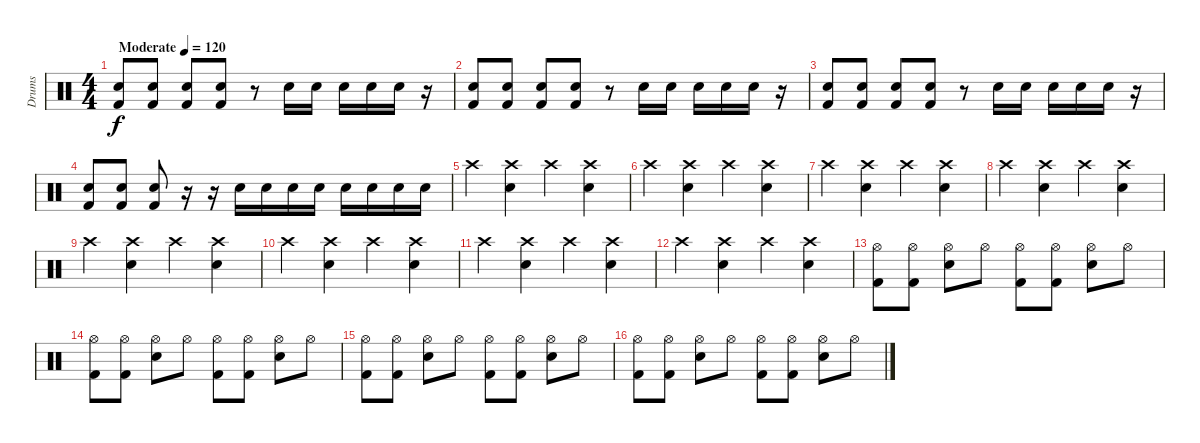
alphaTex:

\track ("Drums" "Drums") {instrument percussion}
\staff {score}
\articulation defaults
\ts (4 4)
\tempo (120 "Moderate")
\clef neutral
\ks c
("Kick (hit) 2" "Snare (hit) 2").8{dy f} ("Kick (hit) 2" "Snare (hit) 2").8 ("Kick (hit) 2" "Snare (hit) 2").8 ("Kick (hit) 2" "Snare (hit) 2").8 r.8 "Snare (hit) 2".16 "Snare (hit) 2".16 "Snare (hit) 2".16 "Snare (hit) 2".16 "Snare (hit) 2".16 r.16 |
("Kick (hit) 2" "Snare (hit) 2").8 ("Kick (hit) 2" "Snare (hit) 2").8 ("Kick (hit) 2" "Snare (hit) 2").8 ("Kick (hit) 2" "Snare (hit) 2").8 r.8 "Snare (hit) 2".16 "Snare (hit) 2".16 "Snare (hit) 2".16 "Snare (hit) 2".16 "Snare (hit) 2".16 r.16 |
("Kick (hit) 2" "Snare (hit) 2").8 ("Kick (hit) 2" "Snare (hit) 2").8 ("Kick (hit) 2" "Snare (hit) 2").8 ("Kick (hit) 2" "Snare (hit) 2").8 r.8 "Snare (hit) 2".16 "Snare (hit) 2".16 "Snare (hit) 2".16 "Snare (hit) 2".16 "Snare (hit) 2".16 r.16 |
("Kick (hit) 2" "Snare (hit) 2").8 ("Kick (hit) 2" "Snare (hit) 2").8 ("Kick (hit) 2" "Snare (hit) 2").8 r.16 r.16 "Snare (hit) 2".16 "Snare (hit) 2".16 "Snare (hit) 2".16 "Snare (hit) 2".16 "Snare (hit) 2".16 "Snare (hit) 2".16 "Snare (hit) 2".16 "Snare (hit) 2".16 |
"Crash high (hit)".4 ("Crash high (hit)" "Snare (hit) 2").4 "Crash high (hit)".4 ("Crash high (hit)" "Snare (hit) 2").4 |
"Crash high (hit)".4 ("Crash high (hit)" "Snare (hit) 2").4 "Crash high (hit)".4 ("Crash high (hit)" "Snare (hit) 2").4 |
"Crash high (hit)".4 ("Crash high (hit)" "Snare (hit) 2").4 "Crash high (hit)".4 ("Crash high (hit)" "Snare (hit) 2").4 |
"Crash high (hit)".4 ("Crash high (hit)" "Snare (hit) 2").4 "Crash high (hit)".4 ("Crash high (hit)" "Snare (hit) 2").4 |
"Crash high (hit)".4 ("Crash high (hit)" "Snare (hit) 2").4 "Crash high (hit)".4 ("Crash high (hit)" "Snare (hit) 2").4 |
"Crash high (hit)".4 ("Crash high (hit)" "Snare (hit) 2").4 "Crash high (hit)".4 ("Crash high (hit)" "Snare (hit) 2").4 |
"Crash high (hit)".4 ("Crash high (hit)" "Snare (hit) 2").4 "Crash high (hit)".4 ("Crash high (hit)" "Snare (hit) 2").4 |
"Crash high (hit)".4 ("Crash high (hit)" "Snare (hit) 2").4 "Crash high (hit)".4 ("Crash high (hit)" "Snare (hit) 2").4 |
("Hi-Hat (open)" "Kick (hit) 2").8 ("Hi-Hat (open)" "Kick (hit) 2").8 ("Hi-Hat (open)" "Snare (hit) 2").8 "Hi-Hat (open)".8 ("Hi-Hat (open)" "Kick (hit) 2").8 ("Hi-Hat (open)" "Kick (hit) 2").8 ("Hi-Hat (open)" "Snare (hit) 2").8 "Hi-Hat (open)".8 |
("Hi-Hat (open)" "Kick (hit) 2").8 ("Hi-Hat (open)" "Kick (hit) 2").8 ("Hi-Hat (open)" "Snare (hit) 2").8 "Hi-Hat (open)".8 ("Hi-Hat (open)" "Kick (hit) 2").8 ("Hi-Hat (open)" "Kick (hit) 2").8 ("Hi-Hat (open)" "Snare (hit) 2").8 "Hi-Hat (open)".8 |
("Hi-Hat (open)" "Kick (hit) 2").8 ("Hi-Hat (open)" "Kick (hit) 2").8 ("Hi-Hat (open)" "Snare (hit) 2").8 "Hi-Hat (open)".8 ("Hi-Hat (open)" "Kick (hit) 2").8 ("Hi-Hat (open)" "Kick (hit) 2").8 ("Hi-Hat (open)" "Snare (hit) 2").8 "Hi-Hat (open)".8 |
("Hi-Hat (open)" "Kick (hit) 2").8 ("Hi-Hat (open)" "Kick (hit) 2").8 ("Hi-Hat (open)" "Snare (hit) 2").8 "Hi-Hat (open)".8 ("Hi-Hat (open)" "Kick (hit) 2").8 ("Hi-Hat (open)" "Kick (hit) 2").8 ("Hi-Hat (open)" "Snare (hit) 2").8 "Hi-Hat (open)".8
